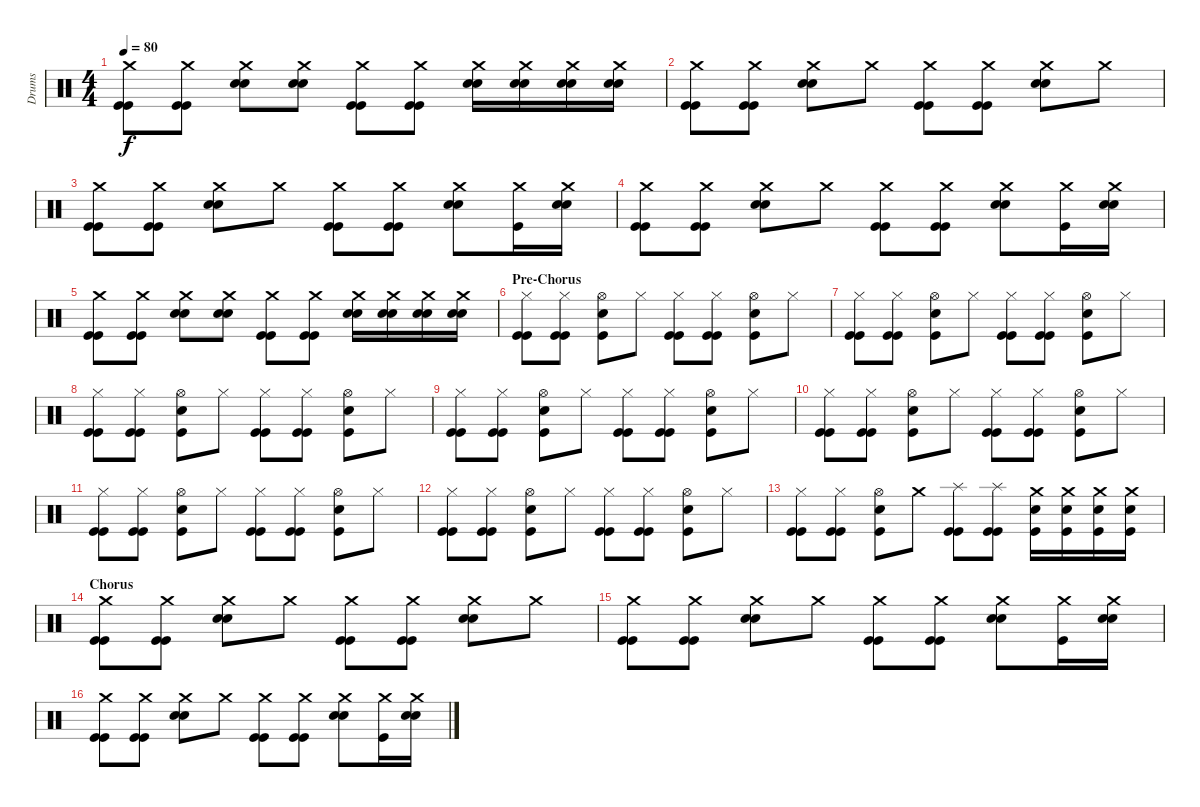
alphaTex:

\track ("Drums" "Drums") {instrument percussion}
\staff {score}
\articulation defaults
\ts (4 4)
\tempo 80
\clef neutral
\ks c
("Crash medium (hit)" "Kick (hit)" "Kick (hit)").8{dy f} ("Crash medium (hit)" "Kick (hit)" "Kick (hit)").8 ("Crash medium (hit)" "Snare (hit) 2" "Snare (hit) 2").8 ("Crash medium (hit)" "Snare (hit) 2" "Snare (hit) 2").8 ("Crash medium (hit)" "Kick (hit)" "Kick (hit)").8 ("Crash medium (hit)" "Kick (hit)" "Kick (hit)").8 ("Crash medium (hit)" "Snare (hit) 2" "Snare (hit) 2").16 ("Crash medium (hit)" "Snare (hit) 2" "Snare (hit) 2").16 ("Crash medium (hit)" "Snare (hit) 2" "Snare (hit) 2").16 ("Crash medium (hit)" "Snare (hit) 2" "Snare (hit) 2").16 |
("Crash medium (hit)" "Kick (hit)" "Kick (hit)").8 ("Crash medium (hit)" "Kick (hit)" "Kick (hit)").8 ("Crash medium (hit)" "Snare (hit) 2" "Snare (hit) 2").8 "Crash medium (hit)".8 ("Crash medium (hit)" "Kick (hit)" "Kick (hit)").8 ("Crash medium (hit)" "Kick (hit)" "Kick (hit)").8 ("Crash medium (hit)" "Snare (hit) 2" "Snare (hit) 2").8 "Crash medium (hit)".8 |
("Crash medium (hit)" "Kick (hit)" "Kick (hit)").8 ("Crash medium (hit)" "Kick (hit)" "Kick (hit)").8 ("Crash medium (hit)" "Snare (hit) 2" "Snare (hit) 2").8 "Crash medium (hit)".8 ("Crash medium (hit)" "Kick (hit)" "Kick (hit)").8 ("Crash medium (hit)" "Kick (hit)" "Kick (hit)").8 ("Crash medium (hit)" "Snare (hit) 2" "Snare (hit) 2").8 ("Crash medium (hit)" "Kick (hit)").16 ("Crash medium (hit)" "Snare (hit) 2" "Snare (hit) 2").16 |
("Crash medium (hit)" "Kick (hit)" "Kick (hit)").8 ("Crash medium (hit)" "Kick (hit)" "Kick (hit)").8 ("Crash medium (hit)" "Snare (hit) 2" "Snare (hit) 2").8 "Crash medium (hit)".8 ("Crash medium (hit)" "Kick (hit)" "Kick (hit)").8 ("Crash medium (hit)" "Kick (hit)" "Kick (hit)").8 ("Crash medium (hit)" "Snare (hit) 2" "Snare (hit) 2").8 ("Crash medium (hit)" "Kick (hit)").16 ("Crash medium (hit)" "Snare (hit) 2" "Snare (hit) 2").16 |
("Crash medium (hit)" "Kick (hit)" "Kick (hit)").8 ("Crash medium (hit)" "Kick (hit)" "Kick (hit)").8 ("Crash medium (hit)" "Snare (hit) 2" "Snare (hit) 2").8 ("Crash medium (hit)" "Snare (hit) 2" "Snare (hit) 2").8 ("Crash medium (hit)" "Kick (hit)" "Kick (hit)").8 ("Crash medium (hit)" "Kick (hit)" "Kick (hit)").8 ("Crash medium (hit)" "Snare (hit) 2" "Snare (hit) 2").16 ("Crash medium (hit)" "Snare (hit) 2" "Snare (hit) 2").16 ("Crash medium (hit)" "Snare (hit) 2" "Snare (hit) 2").16 ("Crash medium (hit)" "Snare (hit) 2" "Snare (hit) 2").16 |
\section ("" "Pre-Chorus")
("Hi-Hat (closed)" "Kick (hit)" "Kick (hit)").8{volume 16} ("Hi-Hat (closed)" "Kick (hit)" "Kick (hit)").8 ("Hi-Hat (open)" "Snare (hit) 2" "Kick (hit)").8 "Hi-Hat (closed)".8 ("Hi-Hat (closed)" "Kick (hit)" "Kick (hit)").8 ("Hi-Hat (closed)" "Kick (hit)" "Kick (hit)").8 ("Hi-Hat (open)" "Snare (hit) 2" "Kick (hit)").8 "Hi-Hat (closed)".8 |
("Hi-Hat (closed)" "Kick (hit)" "Kick (hit)").8{volume 16} ("Hi-Hat (closed)" "Kick (hit)" "Kick (hit)").8 ("Hi-Hat (open)" "Snare (hit) 2" "Kick (hit)").8 "Hi-Hat (closed)".8 ("Hi-Hat (closed)" "Kick (hit)" "Kick (hit)").8 ("Hi-Hat (closed)" "Kick (hit)" "Kick (hit)").8 ("Hi-Hat (open)" "Snare (hit) 2" "Kick (hit)").8 "Hi-Hat (closed)".8 |
("Hi-Hat (closed)" "Kick (hit)" "Kick (hit)").8{volume 16} ("Hi-Hat (closed)" "Kick (hit)" "Kick (hit)").8 ("Hi-Hat (open)" "Snare (hit) 2" "Kick (hit)").8 "Hi-Hat (closed)".8 ("Hi-Hat (closed)" "Kick (hit)" "Kick (hit)").8 ("Hi-Hat (closed)" "Kick (hit)" "Kick (hit)").8 ("Hi-Hat (open)" "Snare (hit) 2" "Kick (hit)").8 "Hi-Hat (closed)".8 |
("Hi-Hat (closed)" "Kick (hit)" "Kick (hit)").8{volume 16} ("Hi-Hat (closed)" "Kick (hit)" "Kick (hit)").8 ("Hi-Hat (open)" "Snare (hit) 2" "Kick (hit)").8 "Hi-Hat (closed)".8 ("Hi-Hat (closed)" "Kick (hit)" "Kick (hit)").8 ("Hi-Hat (closed)" "Kick (hit)" "Kick (hit)").8 ("Hi-Hat (open)" "Snare (hit) 2" "Kick (hit)").8 "Hi-Hat (closed)".8 |
("Hi-Hat (closed)" "Kick (hit)" "Kick (hit)").8{volume 16} ("Hi-Hat (closed)" "Kick (hit)" "Kick (hit)").8 ("Hi-Hat (open)" "Snare (hit) 2" "Kick (hit)").8 "Hi-Hat (closed)".8 ("Hi-Hat (closed)" "Kick (hit)" "Kick (hit)").8 ("Hi-Hat (closed)" "Kick (hit)" "Kick (hit)").8 ("Hi-Hat (open)" "Snare (hit) 2" "Kick (hit)").8 "Hi-Hat (closed)".8 |
("Hi-Hat (closed)" "Kick (hit)" "Kick (hit)").8{volume 16} ("Hi-Hat (closed)" "Kick (hit)" "Kick (hit)").8 ("Hi-Hat (open)" "Snare (hit) 2" "Kick (hit)").8 "Hi-Hat (closed)".8 ("Hi-Hat (closed)" "Kick (hit)" "Kick (hit)").8 ("Hi-Hat (closed)" "Kick (hit)" "Kick (hit)").8 ("Hi-Hat (open)" "Snare (hit) 2" "Kick (hit)").8 "Hi-Hat (closed)".8 |
("Hi-Hat (closed)" "Kick (hit)" "Kick (hit)").8{volume 16} ("Hi-Hat (closed)" "Kick (hit)" "Kick (hit)").8 ("Hi-Hat (open)" "Snare (hit) 2" "Kick (hit)").8 "Hi-Hat (closed)".8 ("Hi-Hat (closed)" "Kick (hit)" "Kick (hit)").8 ("Hi-Hat (closed)" "Kick (hit)" "Kick (hit)").8 ("Hi-Hat (open)" "Snare (hit) 2" "Kick (hit)").8 "Hi-Hat (closed)".8 |
("Hi-Hat (closed)" "Kick (hit)" "Kick (hit)").8{volume 16} ("Hi-Hat (closed)" "Kick (hit)" "Kick (hit)").8 ("Hi-Hat (open)" "Snare (hit) 2" "Kick (hit)").8 "Crash medium (hit)".8 ("Splash (hit)" "Kick (hit)" "Kick (hit)").8 ("Splash (hit)" "Kick (hit)" "Kick (hit)").8 ("Crash medium (hit)" "Snare (hit) 2" "Kick (hit)").16 ("Crash medium (hit)" "Snare (hit) 2" "Kick (hit)").16 ("Crash medium (hit)" "Snare (hit) 2" "Kick (hit)").16 ("Crash medium (hit)" "Snare (hit) 2" "Kick (hit)").16 |
\section ("" "Chorus")
("Crash medium (hit)" "Kick (hit)" "Kick (hit)").8 ("Crash medium (hit)" "Kick (hit)" "Kick (hit)").8 ("Crash medium (hit)" "Snare (hit) 2" "Snare (hit) 2").8 "Crash medium (hit)".8 ("Crash medium (hit)" "Kick (hit)" "Kick (hit)").8 ("Crash medium (hit)" "Kick (hit)" "Kick (hit)").8 ("Crash medium (hit)" "Snare (hit) 2" "Snare (hit) 2").8 "Crash medium (hit)".8 |
("Crash medium (hit)" "Kick (hit)" "Kick (hit)").8 ("Crash medium (hit)" "Kick (hit)" "Kick (hit)").8 ("Crash medium (hit)" "Snare (hit) 2" "Snare (hit) 2").8 "Crash medium (hit)".8 ("Crash medium (hit)" "Kick (hit)" "Kick (hit)").8 ("Crash medium (hit)" "Kick (hit)" "Kick (hit)").8 ("Crash medium (hit)" "Snare (hit) 2" "Snare (hit) 2").8 ("Crash medium (hit)" "Kick (hit)").16 ("Crash medium (hit)" "Snare (hit) 2" "Snare (hit) 2").16 |
("Crash medium (hit)" "Kick (hit)" "Kick (hit)").8 ("Crash medium (hit)" "Kick (hit)" "Kick (hit)").8 ("Crash medium (hit)" "Snare (hit) 2" "Snare (hit) 2").8 "Crash medium (hit)".8 ("Crash medium (hit)" "Kick (hit)" "Kick (hit)").8 ("Crash medium (hit)" "Kick (hit)" "Kick (hit)").8 ("Crash medium (hit)" "Snare (hit) 2" "Snare (hit) 2").8 ("Crash medium (hit)" "Kick (hit)").16 ("Crash medium (hit)" "Snare (hit) 2" "Snare (hit) 2").16
